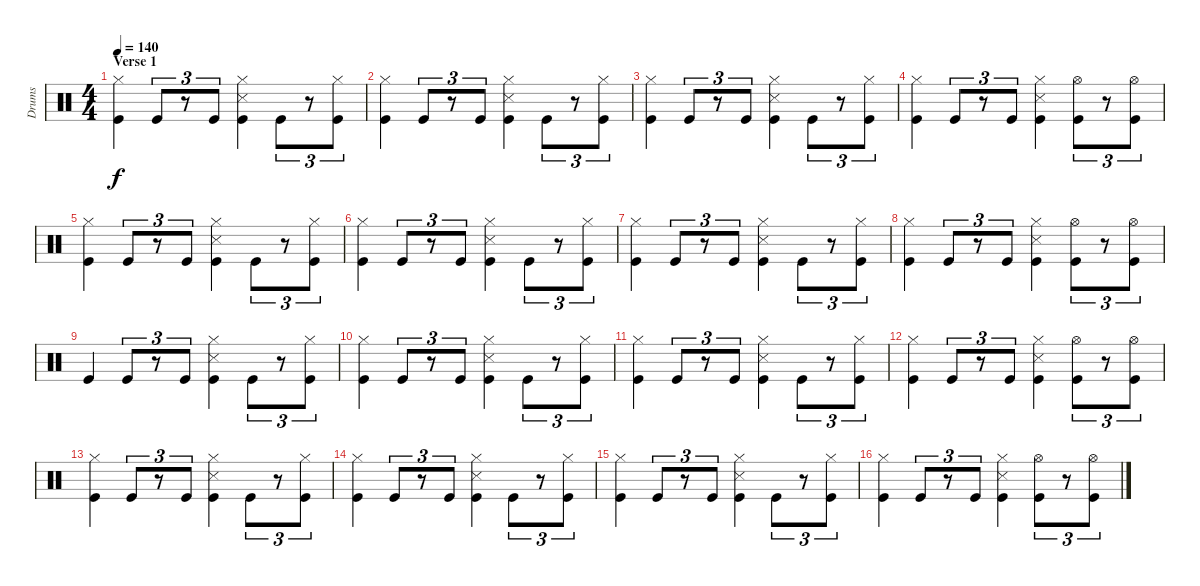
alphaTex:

\track ("Drums" "Drums") {instrument percussion}
\staff {score}
\articulation defaults
\ts (4 4)
\section ("" "Verse 1")
\tempo 140
\clef neutral
\ks c
("Hi-Hat (closed)" "Kick (hit)").4{dy f} "Kick (hit)".8{tu (3 2)} r.8{tu (3 2)} "Kick (hit)".8{tu (3 2)} ("Hi-Hat (closed)" "Kick (hit)" "Snare (side stick) 3").4 "Kick (hit)".8{tu (3 2)} r.8{tu (3 2)} ("Hi-Hat (closed)" "Kick (hit)").8{tu (3 2)} |
("Hi-Hat (closed)" "Kick (hit)").4 "Kick (hit)".8{tu (3 2)} r.8{tu (3 2)} "Kick (hit)".8{tu (3 2)} ("Hi-Hat (closed)" "Kick (hit)" "Snare (side stick) 3").4 "Kick (hit)".8{tu (3 2)} r.8{tu (3 2)} ("Hi-Hat (closed)" "Kick (hit)").8{tu (3 2)} |
("Hi-Hat (closed)" "Kick (hit)").4 "Kick (hit)".8{tu (3 2)} r.8{tu (3 2)} "Kick (hit)".8{tu (3 2)} ("Hi-Hat (closed)" "Kick (hit)" "Snare (side stick) 3").4 "Kick (hit)".8{tu (3 2)} r.8{tu (3 2)} ("Hi-Hat (closed)" "Kick (hit)").8{tu (3 2)} |
("Hi-Hat (closed)" "Kick (hit)").4 "Kick (hit)".8{tu (3 2)} r.8{tu (3 2)} "Kick (hit)".8{tu (3 2)} ("Hi-Hat (closed)" "Kick (hit)" "Snare (side stick) 3").4 ("Hi-Hat (open)" "Kick (hit)").8{tu (3 2)} r.8{tu (3 2)} ("Hi-Hat (open)" "Kick (hit)").8{tu (3 2)} |
("Hi-Hat (closed)" "Kick (hit)").4 "Kick (hit)".8{tu (3 2)} r.8{tu (3 2)} "Kick (hit)".8{tu (3 2)} ("Hi-Hat (closed)" "Kick (hit)" "Snare (side stick) 3").4 "Kick (hit)".8{tu (3 2)} r.8{tu (3 2)} ("Hi-Hat (closed)" "Kick (hit)").8{tu (3 2)} |
("Hi-Hat (closed)" "Kick (hit)").4 "Kick (hit)".8{tu (3 2)} r.8{tu (3 2)} "Kick (hit)".8{tu (3 2)} ("Hi-Hat (closed)" "Kick (hit)" "Snare (side stick) 3").4 "Kick (hit)".8{tu (3 2)} r.8{tu (3 2)} ("Hi-Hat (closed)" "Kick (hit)").8{tu (3 2)} |
("Hi-Hat (closed)" "Kick (hit)").4 "Kick (hit)".8{tu (3 2)} r.8{tu (3 2)} "Kick (hit)".8{tu (3 2)} ("Hi-Hat (closed)" "Kick (hit)" "Snare (side stick) 3").4 "Kick (hit)".8{tu (3 2)} r.8{tu (3 2)} ("Hi-Hat (closed)" "Kick (hit)").8{tu (3 2)} |
("Hi-Hat (closed)" "Kick (hit)").4 "Kick (hit)".8{tu (3 2)} r.8{tu (3 2)} "Kick (hit)".8{tu (3 2)} ("Hi-Hat (closed)" "Kick (hit)" "Snare (side stick) 3").4 ("Hi-Hat (open)" "Kick (hit)").8{tu (3 2)} r.8{tu (3 2)} ("Hi-Hat (open)" "Kick (hit)").8{tu (3 2)} |
"Kick (hit)".4 "Kick (hit)".8{tu (3 2)} r.8{tu (3 2)} "Kick (hit)".8{tu (3 2)} ("Hi-Hat (closed)" "Kick (hit)" "Snare (side stick) 3").4 "Kick (hit)".8{tu (3 2)} r.8{tu (3 2)} ("Hi-Hat (closed)" "Kick (hit)").8{tu (3 2)} |
("Hi-Hat (closed)" "Kick (hit)").4 "Kick (hit)".8{tu (3 2)} r.8{tu (3 2)} "Kick (hit)".8{tu (3 2)} ("Hi-Hat (closed)" "Kick (hit)" "Snare (side stick) 3").4 "Kick (hit)".8{tu (3 2)} r.8{tu (3 2)} ("Hi-Hat (closed)" "Kick (hit)").8{tu (3 2)} |
("Hi-Hat (closed)" "Kick (hit)").4 "Kick (hit)".8{tu (3 2)} r.8{tu (3 2)} "Kick (hit)".8{tu (3 2)} ("Hi-Hat (closed)" "Kick (hit)" "Snare (side stick) 3").4 "Kick (hit)".8{tu (3 2)} r.8{tu (3 2)} ("Hi-Hat (closed)" "Kick (hit)").8{tu (3 2)} |
("Hi-Hat (closed)" "Kick (hit)").4 "Kick (hit)".8{tu (3 2)} r.8{tu (3 2)} "Kick (hit)".8{tu (3 2)} ("Hi-Hat (closed)" "Kick (hit)" "Snare (side stick) 3").4 ("Hi-Hat (open)" "Kick (hit)").8{tu (3 2)} r.8{tu (3 2)} ("Hi-Hat (open)" "Kick (hit)").8{tu (3 2)} |
("Hi-Hat (closed)" "Kick (hit)").4 "Kick (hit)".8{tu (3 2)} r.8{tu (3 2)} "Kick (hit)".8{tu (3 2)} ("Hi-Hat (closed)" "Kick (hit)" "Snare (side stick) 3").4 "Kick (hit)".8{tu (3 2)} r.8{tu (3 2)} ("Hi-Hat (closed)" "Kick (hit)").8{tu (3 2)} |
("Hi-Hat (closed)" "Kick (hit)").4 "Kick (hit)".8{tu (3 2)} r.8{tu (3 2)} "Kick (hit)".8{tu (3 2)} ("Hi-Hat (closed)" "Kick (hit)" "Snare (side stick) 3").4 "Kick (hit)".8{tu (3 2)} r.8{tu (3 2)} ("Hi-Hat (closed)" "Kick (hit)").8{tu (3 2)} |
("Hi-Hat (closed)" "Kick (hit)").4 "Kick (hit)".8{tu (3 2)} r.8{tu (3 2)} "Kick (hit)".8{tu (3 2)} ("Hi-Hat (closed)" "Kick (hit)" "Snare (side stick) 3").4 "Kick (hit)".8{tu (3 2)} r.8{tu (3 2)} ("Hi-Hat (closed)" "Kick (hit)").8{tu (3 2)} |
("Hi-Hat (closed)" "Kick (hit)").4 "Kick (hit)".8{tu (3 2)} r.8{tu (3 2)} "Kick (hit)".8{tu (3 2)} ("Hi-Hat (closed)" "Kick (hit)" "Snare (side stick) 3").4 ("Hi-Hat (open)" "Kick (hit)").8{tu (3 2)} r.8{tu (3 2)} ("Hi-Hat (open)" "Kick (hit)").8{tu (3 2)}
